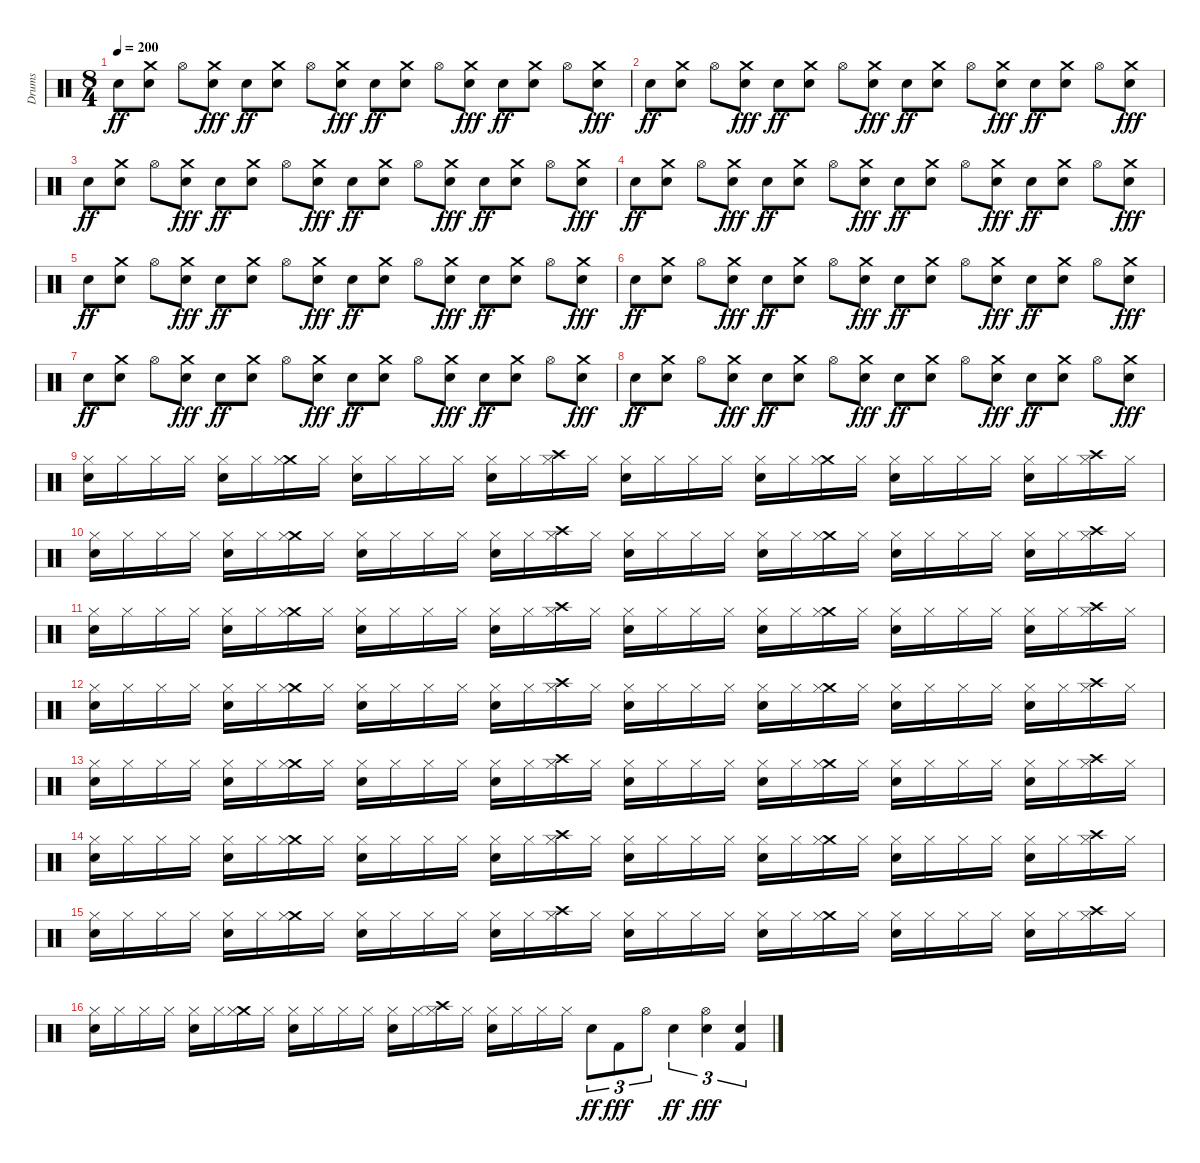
\track ("Drums" "Drums") {instrument percussion}
\staff {score}
\articulation defaults
\ts (8 4)
\tempo 200
\clef neutral
\ks c "Electric Snare (hit)".8{dy ff}
("Crash medium (hit)" "Electric Snare (hit)").8 "Hi-Hat (open)".8 ("Electric Snare (hit)" "Crash medium (hit)").8{dy fff} "Electric Snare (hit)".8{dy ff} ("Crash medium (hit)" "Electric Snare (hit)").8 "Hi-Hat (open)".8 ("Electric Snare (hit)" "Crash medium (hit)").8{dy fff} "Electric Snare (hit)".8{dy ff} ("Crash medium (hit)" "Electric Snare (hit)").8 "Hi-Hat (open)".8 ("Electric Snare (hit)" "Crash medium (hit)").8{dy fff} "Electric Snare (hit)".8{dy ff} ("Crash medium (hit)" "Electric Snare (hit)").8 "Hi-Hat (open)".8 ("Electric Snare (hit)" "Crash medium (hit)").8{dy fff} |
"Electric Snare (hit)".8{dy ff} ("Crash medium (hit)" "Electric Snare (hit)").8 "Hi-Hat (open)".8 ("Electric Snare (hit)" "Crash medium (hit)").8{dy fff} "Electric Snare (hit)".8{dy ff} ("Crash medium (hit)" "Electric Snare (hit)").8 "Hi-Hat (open)".8 ("Electric Snare (hit)" "Crash medium (hit)").8{dy fff} "Electric Snare (hit)".8{dy ff} ("Crash medium (hit)" "Electric Snare (hit)").8 "Hi-Hat (open)".8 ("Electric Snare (hit)" "Crash medium (hit)").8{dy fff} "Electric Snare (hit)".8{dy ff} ("Crash medium (hit)" "Electric Snare (hit)").8 "Hi-Hat (open)".8 ("Electric Snare (hit)" "Crash medium (hit)").8{dy fff} |
"Electric Snare (hit)".8{dy ff} ("Crash medium (hit)" "Electric Snare (hit)").8 "Hi-Hat (open)".8 ("Electric Snare (hit)" "Crash medium (hit)").8{dy fff} "Electric Snare (hit)".8{dy ff} ("Crash medium (hit)" "Electric Snare (hit)").8 "Hi-Hat (open)".8 ("Electric Snare (hit)" "Crash medium (hit)").8{dy fff} "Electric Snare (hit)".8{dy ff} ("Crash medium (hit)" "Electric Snare (hit)").8 "Hi-Hat (open)".8 ("Electric Snare (hit)" "Crash medium (hit)").8{dy fff} "Electric Snare (hit)".8{dy ff} ("Crash medium (hit)" "Electric Snare (hit)").8 "Hi-Hat (open)".8 ("Electric Snare (hit)" "Crash medium (hit)").8{dy fff} |
"Electric Snare (hit)".8{dy ff} ("Crash medium (hit)" "Electric Snare (hit)").8 "Hi-Hat (open)".8 ("Electric Snare (hit)" "Crash medium (hit)").8{dy fff} "Electric Snare (hit)".8{dy ff} ("Crash medium (hit)" "Electric Snare (hit)").8 "Hi-Hat (open)".8 ("Electric Snare (hit)" "Crash medium (hit)").8{dy fff} "Electric Snare (hit)".8{dy ff} ("Crash medium (hit)" "Electric Snare (hit)").8 "Hi-Hat (open)".8 ("Electric Snare (hit)" "Crash medium (hit)").8{dy fff} "Electric Snare (hit)".8{dy ff} ("Crash medium (hit)" "Electric Snare (hit)").8 "Hi-Hat (open)".8 ("Electric Snare (hit)" "Crash medium (hit)").8{dy fff} |
"Electric Snare (hit)".8{dy ff} ("Crash medium (hit)" "Electric Snare (hit)").8 "Hi-Hat (open)".8 ("Electric Snare (hit)" "Crash medium (hit)").8{dy fff} "Electric Snare (hit)".8{dy ff} ("Crash medium (hit)" "Electric Snare (hit)").8 "Hi-Hat (open)".8 ("Electric Snare (hit)" "Crash medium (hit)").8{dy fff} "Electric Snare (hit)".8{dy ff} ("Crash medium (hit)" "Electric Snare (hit)").8 "Hi-Hat (open)".8 ("Electric Snare (hit)" "Crash medium (hit)").8{dy fff} "Electric Snare (hit)".8{dy ff} ("Crash medium (hit)" "Electric Snare (hit)").8 "Hi-Hat (open)".8 ("Electric Snare (hit)" "Crash medium (hit)").8{dy fff} |
"Electric Snare (hit)".8{dy ff} ("Crash medium (hit)" "Electric Snare (hit)").8 "Hi-Hat (open)".8 ("Electric Snare (hit)" "Crash medium (hit)").8{dy fff} "Electric Snare (hit)".8{dy ff} ("Crash medium (hit)" "Electric Snare (hit)").8 "Hi-Hat (open)".8 ("Electric Snare (hit)" "Crash medium (hit)").8{dy fff} "Electric Snare (hit)".8{dy ff} ("Crash medium (hit)" "Electric Snare (hit)").8 "Hi-Hat (open)".8 ("Electric Snare (hit)" "Crash medium (hit)").8{dy fff} "Electric Snare (hit)".8{dy ff} ("Crash medium (hit)" "Electric Snare (hit)").8 "Hi-Hat (open)".8 ("Electric Snare (hit)" "Crash medium (hit)").8{dy fff} |
"Electric Snare (hit)".8{dy ff} ("Crash medium (hit)" "Electric Snare (hit)").8 "Hi-Hat (open)".8 ("Electric Snare (hit)" "Crash medium (hit)").8{dy fff} "Electric Snare (hit)".8{dy ff} ("Crash medium (hit)" "Electric Snare (hit)").8 "Hi-Hat (open)".8 ("Electric Snare (hit)" "Crash medium (hit)").8{dy fff} "Electric Snare (hit)".8{dy ff} ("Crash medium (hit)" "Electric Snare (hit)").8 "Hi-Hat (open)".8 ("Electric Snare (hit)" "Crash medium (hit)").8{dy fff} "Electric Snare (hit)".8{dy ff} ("Crash medium (hit)" "Electric Snare (hit)").8 "Hi-Hat (open)".8 ("Electric Snare (hit)" "Crash medium (hit)").8{dy fff} |
"Electric Snare (hit)".8{dy ff} ("Crash medium (hit)" "Electric Snare (hit)").8 "Hi-Hat (open)".8 ("Electric Snare (hit)" "Crash medium (hit)").8{dy fff} "Electric Snare (hit)".8{dy ff} ("Crash medium (hit)" "Electric Snare (hit)").8 "Hi-Hat (open)".8 ("Electric Snare (hit)" "Crash medium (hit)").8{dy fff} "Electric Snare (hit)".8{dy ff} ("Crash medium (hit)" "Electric Snare (hit)").8 "Hi-Hat (open)".8 ("Electric Snare (hit)" "Crash medium (hit)").8{dy fff} "Electric Snare (hit)".8{dy ff} ("Crash medium (hit)" "Electric Snare (hit)").8 "Hi-Hat (open)".8 ("Electric Snare (hit)" "Crash medium (hit)").8{dy fff} |
("Electric Snare (hit)" "Hi-Hat (closed)").16 "Hi-Hat (closed)".16 "Hi-Hat (closed)".16 "Hi-Hat (closed)".16 ("Electric Snare (hit)" "Hi-Hat (closed)").16 "Hi-Hat (closed)".16 ("Crash medium (hit)" "Hi-Hat (closed)").16 "Hi-Hat (closed)".16 ("Electric Snare (hit)" "Hi-Hat (closed)").16 "Hi-Hat (closed)".16 "Hi-Hat (closed)".16 "Hi-Hat (closed)".16 ("Electric Snare (hit)" "Hi-Hat (closed)").16 "Hi-Hat (closed)".16 ("Crash high (hit)" "Hi-Hat (closed)").16 "Hi-Hat (closed)".16 ("Electric Snare (hit)" "Hi-Hat (closed)").16 "Hi-Hat (closed)".16 "Hi-Hat (closed)".16 "Hi-Hat (closed)".16 ("Electric Snare (hit)" "Hi-Hat (closed)").16 "Hi-Hat (closed)".16 ("Crash medium (hit)" "Hi-Hat (closed)").16 "Hi-Hat (closed)".16 ("Electric Snare (hit)" "Hi-Hat (closed)").16 "Hi-Hat (closed)".16 "Hi-Hat (closed)".16 "Hi-Hat (closed)".16 ("Electric Snare (hit)" "Hi-Hat (closed)").16 "Hi-Hat (closed)".16 ("Crash high (hit)" "Hi-Hat (closed)").16 "Hi-Hat (closed)".16 |
("Electric Snare (hit)" "Hi-Hat (closed)").16 "Hi-Hat (closed)".16 "Hi-Hat (closed)".16 "Hi-Hat (closed)".16 ("Electric Snare (hit)" "Hi-Hat (closed)").16 "Hi-Hat (closed)".16 ("Crash medium (hit)" "Hi-Hat (closed)").16 "Hi-Hat (closed)".16 ("Electric Snare (hit)" "Hi-Hat (closed)").16 "Hi-Hat (closed)".16 "Hi-Hat (closed)".16 "Hi-Hat (closed)".16 ("Electric Snare (hit)" "Hi-Hat (closed)").16 "Hi-Hat (closed)".16 ("Crash high (hit)" "Hi-Hat (closed)").16 "Hi-Hat (closed)".16 ("Electric Snare (hit)" "Hi-Hat (closed)").16 "Hi-Hat (closed)".16 "Hi-Hat (closed)".16 "Hi-Hat (closed)".16 ("Electric Snare (hit)" "Hi-Hat (closed)").16 "Hi-Hat (closed)".16 ("Crash medium (hit)" "Hi-Hat (closed)").16 "Hi-Hat (closed)".16 ("Electric Snare (hit)" "Hi-Hat (closed)").16 "Hi-Hat (closed)".16 "Hi-Hat (closed)".16 "Hi-Hat (closed)".16 ("Electric Snare (hit)" "Hi-Hat (closed)").16 "Hi-Hat (closed)".16 ("Crash high (hit)" "Hi-Hat (closed)").16 "Hi-Hat (closed)".16 |
("Electric Snare (hit)" "Hi-Hat (closed)").16 "Hi-Hat (closed)".16 "Hi-Hat (closed)".16 "Hi-Hat (closed)".16 ("Electric Snare (hit)" "Hi-Hat (closed)").16 "Hi-Hat (closed)".16 ("Crash medium (hit)" "Hi-Hat (closed)").16 "Hi-Hat (closed)".16 ("Electric Snare (hit)" "Hi-Hat (closed)").16 "Hi-Hat (closed)".16 "Hi-Hat (closed)".16 "Hi-Hat (closed)".16 ("Electric Snare (hit)" "Hi-Hat (closed)").16 "Hi-Hat (closed)".16 ("Crash high (hit)" "Hi-Hat (closed)").16 "Hi-Hat (closed)".16 ("Electric Snare (hit)" "Hi-Hat (closed)").16 "Hi-Hat (closed)".16 "Hi-Hat (closed)".16 "Hi-Hat (closed)".16 ("Electric Snare (hit)" "Hi-Hat (closed)").16 "Hi-Hat (closed)".16 ("Crash medium (hit)" "Hi-Hat (closed)").16 "Hi-Hat (closed)".16 ("Electric Snare (hit)" "Hi-Hat (closed)").16 "Hi-Hat (closed)".16 "Hi-Hat (closed)".16 "Hi-Hat (closed)".16 ("Electric Snare (hit)" "Hi-Hat (closed)").16 "Hi-Hat (closed)".16 ("Crash high (hit)" "Hi-Hat (closed)").16 "Hi-Hat (closed)".16 |
("Electric Snare (hit)" "Hi-Hat (closed)").16 "Hi-Hat (closed)".16 "Hi-Hat (closed)".16 "Hi-Hat (closed)".16 ("Electric Snare (hit)" "Hi-Hat (closed)").16 "Hi-Hat (closed)".16 ("Crash medium (hit)" "Hi-Hat (closed)").16 "Hi-Hat (closed)".16 ("Electric Snare (hit)" "Hi-Hat (closed)").16 "Hi-Hat (closed)".16 "Hi-Hat (closed)".16 "Hi-Hat (closed)".16 ("Electric Snare (hit)" "Hi-Hat (closed)").16 "Hi-Hat (closed)".16 ("Crash high (hit)" "Hi-Hat (closed)").16 "Hi-Hat (closed)".16 ("Electric Snare (hit)" "Hi-Hat (closed)").16 "Hi-Hat (closed)".16 "Hi-Hat (closed)".16 "Hi-Hat (closed)".16 ("Electric Snare (hit)" "Hi-Hat (closed)").16 "Hi-Hat (closed)".16 ("Crash medium (hit)" "Hi-Hat (closed)").16 "Hi-Hat (closed)".16 ("Electric Snare (hit)" "Hi-Hat (closed)").16 "Hi-Hat (closed)".16 "Hi-Hat (closed)".16 "Hi-Hat (closed)".16 ("Electric Snare (hit)" "Hi-Hat (closed)").16 "Hi-Hat (closed)".16 ("Crash high (hit)" "Hi-Hat (closed)").16 "Hi-Hat (closed)".16 |
("Electric Snare (hit)" "Hi-Hat (closed)").16 "Hi-Hat (closed)".16 "Hi-Hat (closed)".16 "Hi-Hat (closed)".16 ("Electric Snare (hit)" "Hi-Hat (closed)").16 "Hi-Hat (closed)".16 ("Crash medium (hit)" "Hi-Hat (closed)").16 "Hi-Hat (closed)".16 ("Electric Snare (hit)" "Hi-Hat (closed)").16 "Hi-Hat (closed)".16 "Hi-Hat (closed)".16 "Hi-Hat (closed)".16 ("Electric Snare (hit)" "Hi-Hat (closed)").16 "Hi-Hat (closed)".16 ("Crash high (hit)" "Hi-Hat (closed)").16 "Hi-Hat (closed)".16 ("Electric Snare (hit)" "Hi-Hat (closed)").16 "Hi-Hat (closed)".16 "Hi-Hat (closed)".16 "Hi-Hat (closed)".16 ("Electric Snare (hit)" "Hi-Hat (closed)").16 "Hi-Hat (closed)".16 ("Crash medium (hit)" "Hi-Hat (closed)").16 "Hi-Hat (closed)".16 ("Electric Snare (hit)" "Hi-Hat (closed)").16 "Hi-Hat (closed)".16 "Hi-Hat (closed)".16 "Hi-Hat (closed)".16 ("Electric Snare (hit)" "Hi-Hat (closed)").16 "Hi-Hat (closed)".16 ("Crash high (hit)" "Hi-Hat (closed)").16 "Hi-Hat (closed)".16 |
("Electric Snare (hit)" "Hi-Hat (closed)").16 "Hi-Hat (closed)".16 "Hi-Hat (closed)".16 "Hi-Hat (closed)".16 ("Electric Snare (hit)" "Hi-Hat (closed)").16 "Hi-Hat (closed)".16 ("Crash medium (hit)" "Hi-Hat (closed)").16 "Hi-Hat (closed)".16 ("Electric Snare (hit)" "Hi-Hat (closed)").16 "Hi-Hat (closed)".16 "Hi-Hat (closed)".16 "Hi-Hat (closed)".16 ("Electric Snare (hit)" "Hi-Hat (closed)").16 "Hi-Hat (closed)".16 ("Crash high (hit)" "Hi-Hat (closed)").16 "Hi-Hat (closed)".16 ("Electric Snare (hit)" "Hi-Hat (closed)").16 "Hi-Hat (closed)".16 "Hi-Hat (closed)".16 "Hi-Hat (closed)".16 ("Electric Snare (hit)" "Hi-Hat (closed)").16 "Hi-Hat (closed)".16 ("Crash medium (hit)" "Hi-Hat (closed)").16 "Hi-Hat (closed)".16 ("Electric Snare (hit)" "Hi-Hat (closed)").16 "Hi-Hat (closed)".16 "Hi-Hat (closed)".16 "Hi-Hat (closed)".16 ("Electric Snare (hit)" "Hi-Hat (closed)").16 "Hi-Hat (closed)".16 ("Crash high (hit)" "Hi-Hat (closed)").16 "Hi-Hat (closed)".16 |
("Electric Snare (hit)" "Hi-Hat (closed)").16 "Hi-Hat (closed)".16 "Hi-Hat (closed)".16 "Hi-Hat (closed)".16 ("Electric Snare (hit)" "Hi-Hat (closed)").16 "Hi-Hat (closed)".16 ("Crash medium (hit)" "Hi-Hat (closed)").16 "Hi-Hat (closed)".16 ("Electric Snare (hit)" "Hi-Hat (closed)").16 "Hi-Hat (closed)".16 "Hi-Hat (closed)".16 "Hi-Hat (closed)".16 ("Electric Snare (hit)" "Hi-Hat (closed)").16 "Hi-Hat (closed)".16 ("Crash high (hit)" "Hi-Hat (closed)").16 "Hi-Hat (closed)".16 ("Electric Snare (hit)" "Hi-Hat (closed)").16 "Hi-Hat (closed)".16 "Hi-Hat (closed)".16 "Hi-Hat (closed)".16 ("Electric Snare (hit)" "Hi-Hat (closed)").16 "Hi-Hat (closed)".16 ("Crash medium (hit)" "Hi-Hat (closed)").16 "Hi-Hat (closed)".16 ("Electric Snare (hit)" "Hi-Hat (closed)").16 "Hi-Hat (closed)".16 "Hi-Hat (closed)".16 "Hi-Hat (closed)".16 ("Electric Snare (hit)" "Hi-Hat (closed)").16 "Hi-Hat (closed)".16 ("Crash high (hit)" "Hi-Hat (closed)").16 "Hi-Hat (closed)".16 |
("Electric Snare (hit)" "Hi-Hat (closed)").16 "Hi-Hat (closed)".16 "Hi-Hat (closed)".16 "Hi-Hat (closed)".16 ("Electric Snare (hit)" "Hi-Hat (closed)").16 "Hi-Hat (closed)".16 ("Crash medium (hit)" "Hi-Hat (closed)").16 "Hi-Hat (closed)".16 ("Electric Snare (hit)" "Hi-Hat (closed)").16 "Hi-Hat (closed)".16 "Hi-Hat (closed)".16 "Hi-Hat (closed)".16 ("Electric Snare (hit)" "Hi-Hat (closed)").16 "Hi-Hat (closed)".16 ("Crash high (hit)" "Hi-Hat (closed)").16 "Hi-Hat (closed)".16 ("Electric Snare (hit)" "Hi-Hat (closed)").16 "Hi-Hat (closed)".16 "Hi-Hat (closed)".16 "Hi-Hat (closed)".16 "Electric Snare (hit)".8{tu (3 2) dy ff} "Kick (hit) 2".8{tu (3 2) dy fff} "Hi-Hat (open)".8{tu (3 2)} "Electric Snare (hit)".4{tu (3 2) dy ff} ("Electric Snare (hit)" "Hi-Hat (open)").4{tu (3 2) dy fff} ("Electric Snare (hit)" "Kick (hit) 2").4{tu (3 2)}
